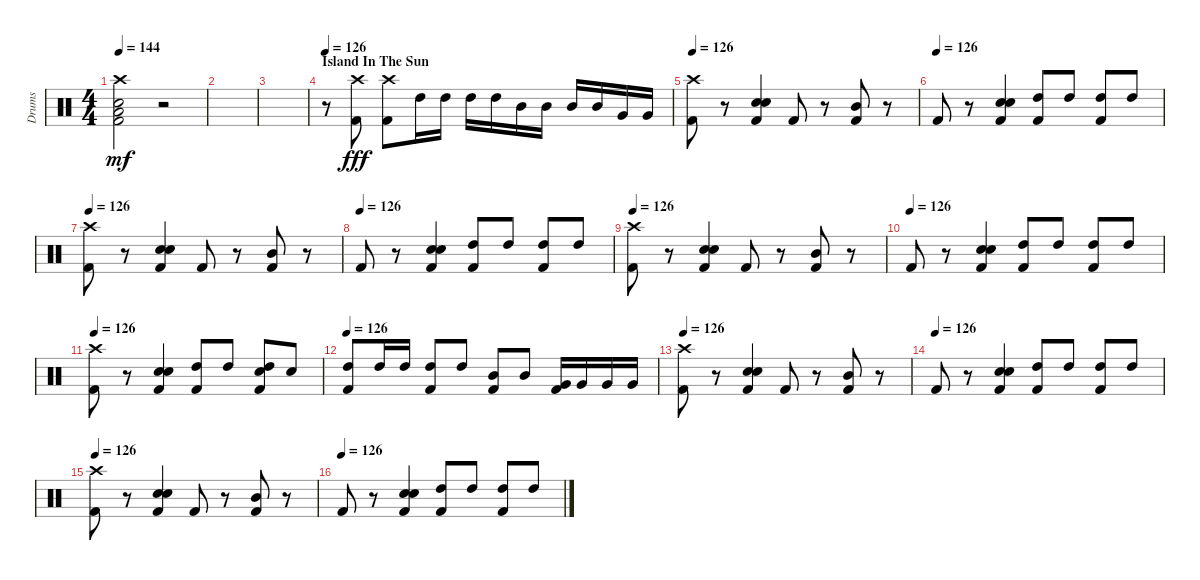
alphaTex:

\track ("Drums" "Drums") {instrument percussion}
\staff {score}
\articulation defaults
\ts (4 4)
\tempo 144
\clef neutral
\ks c
("Crash high (hit)" "Electric Snare (hit)" "Kick (hit) 2" "Low Floor Tom (hit)").2{dy mf} r.2 |
|
|
\section ("" "Island In The Sun")
\tempo 126
r.8 ("Crash high (hit)" "Kick (hit) 2").8{dy fff} ("Crash high (hit)" "Kick (hit) 2").8 "High Tom (hit)".16 "High Tom (hit)".16 "High Tom (hit)".16 "High Tom (hit)".16 "Mid Tom (hit)".16 "Mid Tom (hit)".16 "Mid Tom (hit)".16 "Mid Tom (hit)".16 "Very Low Tom (hit)".16 "Very Low Tom (hit)".16 |
\tempo 126
("Crash high (hit)" "Kick (hit) 2").8 r.8 ("Snare (hit) 2" "Kick (hit) 2" "Snare (hit) 2").4 "Kick (hit) 2".8 r.8 ("Kick (hit) 2" "Mid Tom (hit)").8 r.8 |
\tempo (126)
"Kick (hit) 2".8 r.8 ("Snare (hit) 2" "Snare (hit) 2" "Kick (hit) 2").4 ("Kick (hit) 2" "High Tom (hit)").8 "High Tom (hit)".8 ("Kick (hit) 2" "High Tom (hit)").8 "High Tom (hit)".8 |
\tempo 126
("Crash high (hit)" "Kick (hit) 2").8 r.8 ("Snare (hit) 2" "Kick (hit) 2" "Snare (hit) 2").4 "Kick (hit) 2".8 r.8 ("Kick (hit) 2" "Mid Tom (hit)").8 r.8 |
\tempo (126)
"Kick (hit) 2".8 r.8 ("Snare (hit) 2" "Snare (hit) 2" "Kick (hit) 2").4 ("Kick (hit) 2" "High Tom (hit)").8 "High Tom (hit)".8 ("Kick (hit) 2" "High Tom (hit)").8 "High Tom (hit)".8 |
\tempo 126
("Crash high (hit)" "Kick (hit) 2").8 r.8 ("Snare (hit) 2" "Kick (hit) 2" "Snare (hit) 2").4 "Kick (hit) 2".8 r.8 ("Kick (hit) 2" "Mid Tom (hit)").8 r.8 |
\tempo (126)
"Kick (hit) 2".8 r.8 ("Snare (hit) 2" "Snare (hit) 2" "Kick (hit) 2").4 ("Kick (hit) 2" "High Tom (hit)").8 "High Tom (hit)".8 ("Kick (hit) 2" "High Tom (hit)").8 "High Tom (hit)".8 |
\tempo 126
("Crash high (hit)" "Kick (hit) 2").8 r.8 ("Snare (hit) 2" "Kick (hit) 2" "Snare (hit) 2").4 ("Kick (hit) 2" "High Tom (hit)").8 "High Tom (hit)".8 ("Snare (hit) 2" "Kick (hit) 2" "High Tom (hit)").8 "Snare (hit) 2".8 |
\tempo 126
("Kick (hit) 2" "High Tom (hit)").8 "High Tom (hit)".16 "High Tom (hit)".16 ("Kick (hit) 2" "High Tom (hit)").8 "High Tom (hit)".8 ("Kick (hit) 2" "Mid Tom (hit)").8 "Mid Tom (hit)".8 ("Kick (hit) 2" "Very Low Tom (hit)").16 "Very Low Tom (hit)".16 "Very Low Tom (hit)".16 "Very Low Tom (hit)".16 |
\tempo 126
("Crash high (hit)" "Kick (hit) 2").8 r.8 ("Snare (hit) 2" "Kick (hit) 2" "Snare (hit) 2").4 "Kick (hit) 2".8 r.8 ("Kick (hit) 2" "Mid Tom (hit)").8 r.8 |
\tempo (126)
"Kick (hit) 2".8 r.8 ("Snare (hit) 2" "Snare (hit) 2" "Kick (hit) 2").4 ("Kick (hit) 2" "High Tom (hit)").8 "High Tom (hit)".8 ("Kick (hit) 2" "High Tom (hit)").8 "High Tom (hit)".8 |
\tempo 126
("Crash high (hit)" "Kick (hit) 2").8 r.8 ("Snare (hit) 2" "Kick (hit) 2" "Snare (hit) 2").4 "Kick (hit) 2".8 r.8 ("Kick (hit) 2" "Mid Tom (hit)").8 r.8 |
\tempo (126)
"Kick (hit) 2".8 r.8 ("Snare (hit) 2" "Snare (hit) 2" "Kick (hit) 2").4 ("Kick (hit) 2" "High Tom (hit)").8 "High Tom (hit)".8 ("Kick (hit) 2" "High Tom (hit)").8 "High Tom (hit)".8
